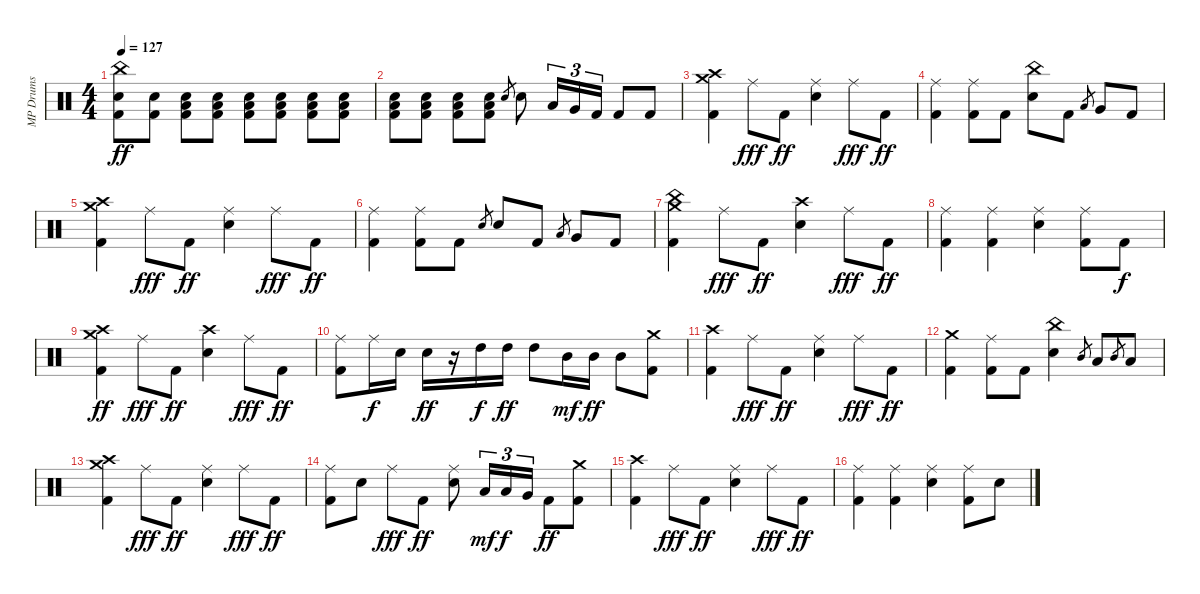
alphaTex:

\track ("MP Drums" "MP Drums") {instrument percussion}
\staff {score}
\articulation defaults
\ts (4 4)
\tempo 127
\clef neutral
\ks c
("China (hit)" "Snare (hit) 2" "Kick (hit) 2").8{dy ff} ("Snare (hit) 2" "Kick (hit) 2").8 ("Low Floor Tom (hit)" "Snare (hit) 2" "Kick (hit) 2").8 ("Low Floor Tom (hit)" "Snare (hit) 2" "Kick (hit) 2").8 ("Low Floor Tom (hit)" "Snare (hit) 2" "Kick (hit) 2").8 ("Low Floor Tom (hit)" "Snare (hit) 2" "Kick (hit) 2").8 ("Low Floor Tom (hit)" "Snare (hit) 2" "Kick (hit) 2").8 ("Low Floor Tom (hit)" "Snare (hit) 2" "Kick (hit) 2").8 |
("Low Floor Tom (hit)" "Snare (hit) 2" "Kick (hit) 2").8 ("Low Floor Tom (hit)" "Snare (hit) 2" "Kick (hit) 2").8 ("Low Floor Tom (hit)" "Snare (hit) 2" "Kick (hit) 2").8 ("Low Floor Tom (hit)" "Snare (hit) 2" "Kick (hit) 2").8 "Snare (hit) 2".8{gr} "Snare (hit) 2".8 "Low Tom (hit)".16{tu (3 2)} "Very Low Tom (hit)".16{tu (3 2)} "Kick (hit) 2".16{tu (3 2)} "Kick (hit) 2".8 "Kick (hit) 2".8 |
("Crash high (hit)" "Crash medium (hit)" "Kick (hit) 2").4 "Ride (middle)".8{dy fff} "Kick (hit) 2".8{dy ff} ("Ride (middle)" "Snare (hit) 2").4 "Ride (middle)".8{dy fff} "Kick (hit) 2".8{dy ff} |
("Ride (middle)" "Kick (hit) 2").4 ("Ride (middle)" "Kick (hit) 2").8 "Kick (hit) 2".8 ("China (hit)" "Snare (hit) 2").8 "Kick (hit) 2".8 "Low Tom (hit)".8{gr} "Very Low Tom (hit)".8 "Kick (hit) 2".8 |
("Crash high (hit)" "Crash medium (hit)" "Kick (hit) 2").4 "Ride (middle)".8{dy fff} "Kick (hit) 2".8{dy ff} ("Ride (middle)" "Snare (hit) 2").4 "Ride (middle)".8{dy fff} "Kick (hit) 2".8{dy ff} |
("Ride (middle)" "Kick (hit) 2").4 ("Ride (middle)" "Kick (hit) 2").8 "Kick (hit) 2".8 "Snare (hit) 2".8{gr} "Snare (hit) 2".8 "Kick (hit) 2".8 "Low Tom (hit)".8{gr} "Very Low Tom (hit)".8 "Kick (hit) 2".8 |
("China (hit)" "Crash medium (hit)" "Kick (hit) 2").4 "Ride (middle)".8{dy fff} "Kick (hit) 2".8{dy ff} ("Crash high (hit)" "Snare (hit) 2").4 "Ride (middle)".8{dy fff} "Kick (hit) 2".8{dy ff} |
("Ride (middle)" "Kick (hit) 2").4 ("Ride (middle)" "Kick (hit) 2").4 ("Ride (middle)" "Snare (hit) 2").4 ("Ride (middle)" "Kick (hit) 2").8 "Kick (hit) 2".8{dy f} |
("Crash high (hit)" "Crash medium (hit)" "Kick (hit) 2").4{dy ff} "Ride (middle)".8{dy fff} "Kick (hit) 2".8{dy ff} ("Crash high (hit)" "Snare (hit) 2").4 "Ride (middle)".8{dy fff} "Kick (hit) 2".8{dy ff} |
("Ride (middle)" "Kick (hit) 2").8 "Ride (middle)".16{dy f} "Snare (hit) 2".16 "Snare (hit) 2".16{dy ff} r.16 "High Tom (hit)".16{dy f} "High Tom (hit)".16{dy ff} "High Tom (hit)".8 "Mid Tom (hit)".16{dy mf} "Mid Tom (hit)".16{dy ff} "Mid Tom (hit)".8 ("Crash medium (hit)" "Kick (hit) 2").8 |
("Crash high (hit)" "Kick (hit) 2").4 "Ride (middle)".8{dy fff} "Kick (hit) 2".8{dy ff} ("Ride (middle)" "Snare (hit) 2").4 "Ride (middle)".8{dy fff} "Kick (hit) 2".8{dy ff} |
("Crash medium (hit)" "Kick (hit) 2").4 ("Ride (middle)" "Kick (hit) 2").8 "Kick (hit) 2".8 ("China (hit)" "Snare (hit) 2").4 "Mid Tom (hit)".8{gr} "Low Tom (hit)".8 "Mid Tom (hit)".8{gr} "Low Tom (hit)".8 |
("Crash high (hit)" "Crash medium (hit)" "Kick (hit) 2").4 "Ride (middle)".8{dy fff} "Kick (hit) 2".8{dy ff} ("Ride (middle)" "Snare (hit) 2").4 "Ride (middle)".8{dy fff} "Kick (hit) 2".8{dy ff} |
("Ride (middle)" "Kick (hit) 2").8 "Snare (hit) 2".8 "Ride (middle)".8{dy fff} "Kick (hit) 2".8{dy ff} ("Ride (middle)" "Snare (hit) 2").8 "Low Tom (hit)".16{tu (3 2) dy mf} "Low Tom (hit)".16{tu (3 2) dy f} "Very Low Tom (hit)".16{tu (3 2)} "Kick (hit) 2".8{dy ff} ("Crash medium (hit)" "Kick (hit) 2").8 |
("Crash high (hit)" "Kick (hit) 2").4 "Ride (middle)".8{dy fff} "Kick (hit) 2".8{dy ff} ("Ride (middle)" "Snare (hit) 2").4 "Ride (middle)".8{dy fff} "Kick (hit) 2".8{dy ff} |
("Ride (middle)" "Kick (hit) 2").4 ("Ride (middle)" "Kick (hit) 2").4 ("Ride (middle)" "Snare (hit) 2").4 ("Ride (middle)" "Kick (hit) 2").8 "Snare (hit) 2".8
